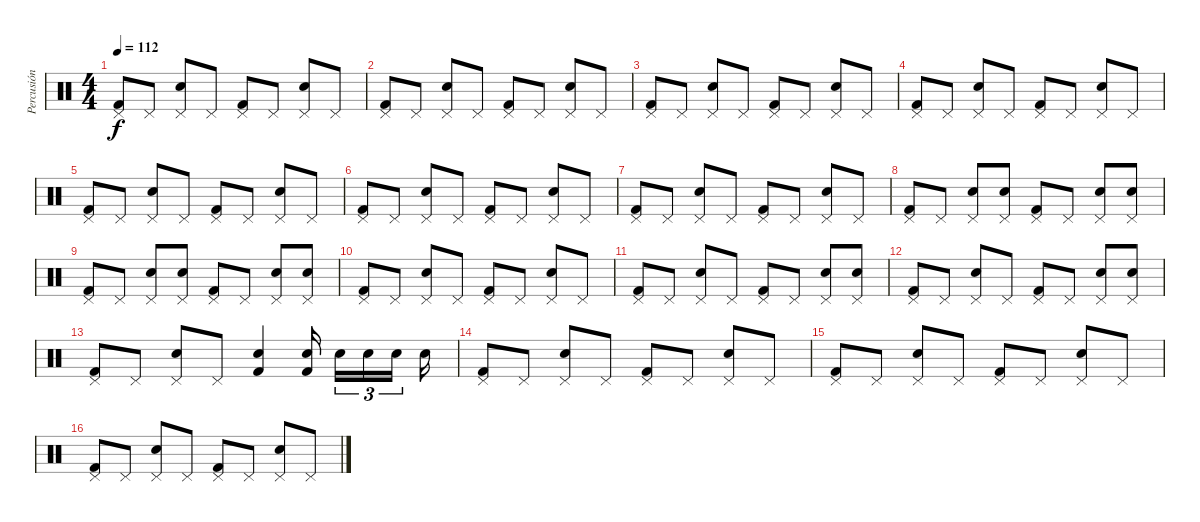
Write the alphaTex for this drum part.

\track ("Percusión" "Percusión") {instrument percussion}
\staff {score}
\articulation defaults
\ts (4 4)
\tempo 112
\clef neutral
\ks c
("Pedal Hi-Hat (hit)" "Kick (hit) 2").8{dy f} "Pedal Hi-Hat (hit)".8 ("Snare (hit) 2" "Pedal Hi-Hat (hit)").8 "Pedal Hi-Hat (hit)".8 ("Pedal Hi-Hat (hit)" "Kick (hit) 2").8 "Pedal Hi-Hat (hit)".8 ("Snare (hit) 2" "Pedal Hi-Hat (hit)").8 "Pedal Hi-Hat (hit)".8 |
("Pedal Hi-Hat (hit)" "Kick (hit) 2").8 "Pedal Hi-Hat (hit)".8 ("Snare (hit) 2" "Pedal Hi-Hat (hit)").8 "Pedal Hi-Hat (hit)".8 ("Pedal Hi-Hat (hit)" "Kick (hit) 2").8 "Pedal Hi-Hat (hit)".8 ("Snare (hit) 2" "Pedal Hi-Hat (hit)").8 "Pedal Hi-Hat (hit)".8 |
("Pedal Hi-Hat (hit)" "Kick (hit) 2").8 "Pedal Hi-Hat (hit)".8 ("Snare (hit) 2" "Pedal Hi-Hat (hit)").8 "Pedal Hi-Hat (hit)".8 ("Pedal Hi-Hat (hit)" "Kick (hit) 2").8 "Pedal Hi-Hat (hit)".8 ("Snare (hit) 2" "Pedal Hi-Hat (hit)").8 "Pedal Hi-Hat (hit)".8 |
("Pedal Hi-Hat (hit)" "Kick (hit) 2").8 "Pedal Hi-Hat (hit)".8 ("Snare (hit) 2" "Pedal Hi-Hat (hit)").8 "Pedal Hi-Hat (hit)".8 ("Pedal Hi-Hat (hit)" "Kick (hit) 2").8 "Pedal Hi-Hat (hit)".8 ("Snare (hit) 2" "Pedal Hi-Hat (hit)").8 "Pedal Hi-Hat (hit)".8 |
("Pedal Hi-Hat (hit)" "Kick (hit) 2").8 "Pedal Hi-Hat (hit)".8 ("Snare (hit) 2" "Pedal Hi-Hat (hit)").8 "Pedal Hi-Hat (hit)".8 ("Pedal Hi-Hat (hit)" "Kick (hit) 2").8 "Pedal Hi-Hat (hit)".8 ("Snare (hit) 2" "Pedal Hi-Hat (hit)").8 "Pedal Hi-Hat (hit)".8 |
("Pedal Hi-Hat (hit)" "Kick (hit) 2").8 "Pedal Hi-Hat (hit)".8 ("Snare (hit) 2" "Pedal Hi-Hat (hit)").8 "Pedal Hi-Hat (hit)".8 ("Pedal Hi-Hat (hit)" "Kick (hit) 2").8 "Pedal Hi-Hat (hit)".8 ("Snare (hit) 2" "Pedal Hi-Hat (hit)").8 "Pedal Hi-Hat (hit)".8 |
("Pedal Hi-Hat (hit)" "Kick (hit) 2").8 "Pedal Hi-Hat (hit)".8 ("Snare (hit) 2" "Pedal Hi-Hat (hit)").8 "Pedal Hi-Hat (hit)".8 ("Pedal Hi-Hat (hit)" "Kick (hit) 2").8 "Pedal Hi-Hat (hit)".8 ("Snare (hit) 2" "Pedal Hi-Hat (hit)").8 "Pedal Hi-Hat (hit)".8 |
("Pedal Hi-Hat (hit)" "Kick (hit) 2").8 "Pedal Hi-Hat (hit)".8 ("Snare (hit) 2" "Pedal Hi-Hat (hit)").8 ("Snare (hit) 2" "Pedal Hi-Hat (hit)").8 ("Pedal Hi-Hat (hit)" "Kick (hit) 2").8 "Pedal Hi-Hat (hit)".8 ("Snare (hit) 2" "Pedal Hi-Hat (hit)").8 ("Snare (hit) 2" "Pedal Hi-Hat (hit)").8 |
("Pedal Hi-Hat (hit)" "Kick (hit) 2").8 "Pedal Hi-Hat (hit)".8 ("Snare (hit) 2" "Pedal Hi-Hat (hit)").8 ("Snare (hit) 2" "Pedal Hi-Hat (hit)").8 ("Pedal Hi-Hat (hit)" "Kick (hit) 2").8 "Pedal Hi-Hat (hit)".8 ("Snare (hit) 2" "Pedal Hi-Hat (hit)").8 ("Snare (hit) 2" "Pedal Hi-Hat (hit)").8 |
("Pedal Hi-Hat (hit)" "Kick (hit) 2").8 "Pedal Hi-Hat (hit)".8 ("Snare (hit) 2" "Pedal Hi-Hat (hit)").8 "Pedal Hi-Hat (hit)".8 ("Pedal Hi-Hat (hit)" "Kick (hit) 2").8 "Pedal Hi-Hat (hit)".8 ("Snare (hit) 2" "Pedal Hi-Hat (hit)").8 "Pedal Hi-Hat (hit)".8 |
("Pedal Hi-Hat (hit)" "Kick (hit) 2").8 "Pedal Hi-Hat (hit)".8 ("Snare (hit) 2" "Pedal Hi-Hat (hit)").8 "Pedal Hi-Hat (hit)".8 ("Pedal Hi-Hat (hit)" "Kick (hit) 2").8 "Pedal Hi-Hat (hit)".8 ("Snare (hit) 2" "Pedal Hi-Hat (hit)").8 ("Snare (hit) 2" "Pedal Hi-Hat (hit)").8 |
("Pedal Hi-Hat (hit)" "Kick (hit) 2").8 "Pedal Hi-Hat (hit)".8 ("Snare (hit) 2" "Pedal Hi-Hat (hit)").8 "Pedal Hi-Hat (hit)".8 ("Pedal Hi-Hat (hit)" "Kick (hit) 2").8 "Pedal Hi-Hat (hit)".8 ("Snare (hit) 2" "Pedal Hi-Hat (hit)").8 ("Snare (hit) 2" "Pedal Hi-Hat (hit)").8 |
("Pedal Hi-Hat (hit)" "Kick (hit) 2").8 "Pedal Hi-Hat (hit)".8 ("Snare (hit) 2" "Pedal Hi-Hat (hit)").8 "Pedal Hi-Hat (hit)".8 ("Snare (hit) 2" "Kick (hit) 2").4 ("Snare (hit) 2" "Kick (hit) 2").16{beam splitsecondary} "Snare (hit) 2".16{tu (3 2)} "Snare (hit) 2".16{tu (3 2)} "Snare (hit) 2".16{tu (3 2) beam splitsecondary} "Snare (hit) 2".16 |
("Pedal Hi-Hat (hit)" "Kick (hit) 2").8 "Pedal Hi-Hat (hit)".8 ("Snare (hit) 2" "Pedal Hi-Hat (hit)").8 "Pedal Hi-Hat (hit)".8 ("Pedal Hi-Hat (hit)" "Kick (hit) 2").8 "Pedal Hi-Hat (hit)".8 ("Snare (hit) 2" "Pedal Hi-Hat (hit)").8 "Pedal Hi-Hat (hit)".8 |
("Pedal Hi-Hat (hit)" "Kick (hit) 2").8 "Pedal Hi-Hat (hit)".8 ("Snare (hit) 2" "Pedal Hi-Hat (hit)").8 "Pedal Hi-Hat (hit)".8 ("Pedal Hi-Hat (hit)" "Kick (hit) 2").8 "Pedal Hi-Hat (hit)".8 ("Snare (hit) 2" "Pedal Hi-Hat (hit)").8 "Pedal Hi-Hat (hit)".8 |
("Pedal Hi-Hat (hit)" "Kick (hit) 2").8 "Pedal Hi-Hat (hit)".8 ("Snare (hit) 2" "Pedal Hi-Hat (hit)").8 "Pedal Hi-Hat (hit)".8 ("Pedal Hi-Hat (hit)" "Kick (hit) 2").8 "Pedal Hi-Hat (hit)".8 ("Snare (hit) 2" "Pedal Hi-Hat (hit)").8 "Pedal Hi-Hat (hit)".8
